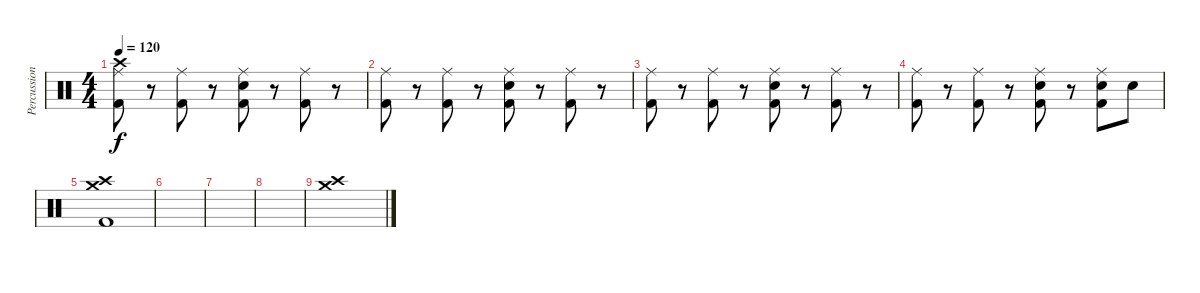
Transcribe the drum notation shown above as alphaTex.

\track ("Percussion" "Percussion") {instrument percussion}
\staff {score}
\articulation defaults
\ts (4 4)
\tempo 120
\clef neutral
\ks c
("Crash high (hit)" "Ride (middle)" "Kick (hit) 2").8{dy f} r.8 ("Ride (middle)" "Kick (hit) 2").8 r.8 ("Ride (middle)" "Snare (hit) 2" "Kick (hit) 2").8 r.8 ("Ride (middle)" "Kick (hit) 2").8 r.8 |
("Ride (middle)" "Kick (hit) 2").8 r.8 ("Ride (middle)" "Kick (hit) 2").8 r.8 ("Ride (middle)" "Snare (hit) 2" "Kick (hit) 2").8 r.8 ("Ride (middle)" "Kick (hit) 2").8 r.8 |
("Ride (middle)" "Kick (hit) 2").8 r.8 ("Ride (middle)" "Kick (hit) 2").8 r.8 ("Ride (middle)" "Snare (hit) 2" "Kick (hit) 2").8 r.8 ("Ride (middle)" "Kick (hit) 2").8 r.8 |
("Ride (middle)" "Kick (hit) 2").8 r.8 ("Ride (middle)" "Kick (hit) 2").8 r.8 ("Ride (middle)" "Snare (hit) 2" "Kick (hit) 2").8 r.8 ("Ride (middle)" "Snare (hit) 2" "Kick (hit) 2").8 "Snare (hit) 2".8 |
("Crash high (hit)" "Crash medium (hit)" "Kick (hit) 2").1 |
|
|
|
("Crash high (hit)" "Crash medium (hit)").1
